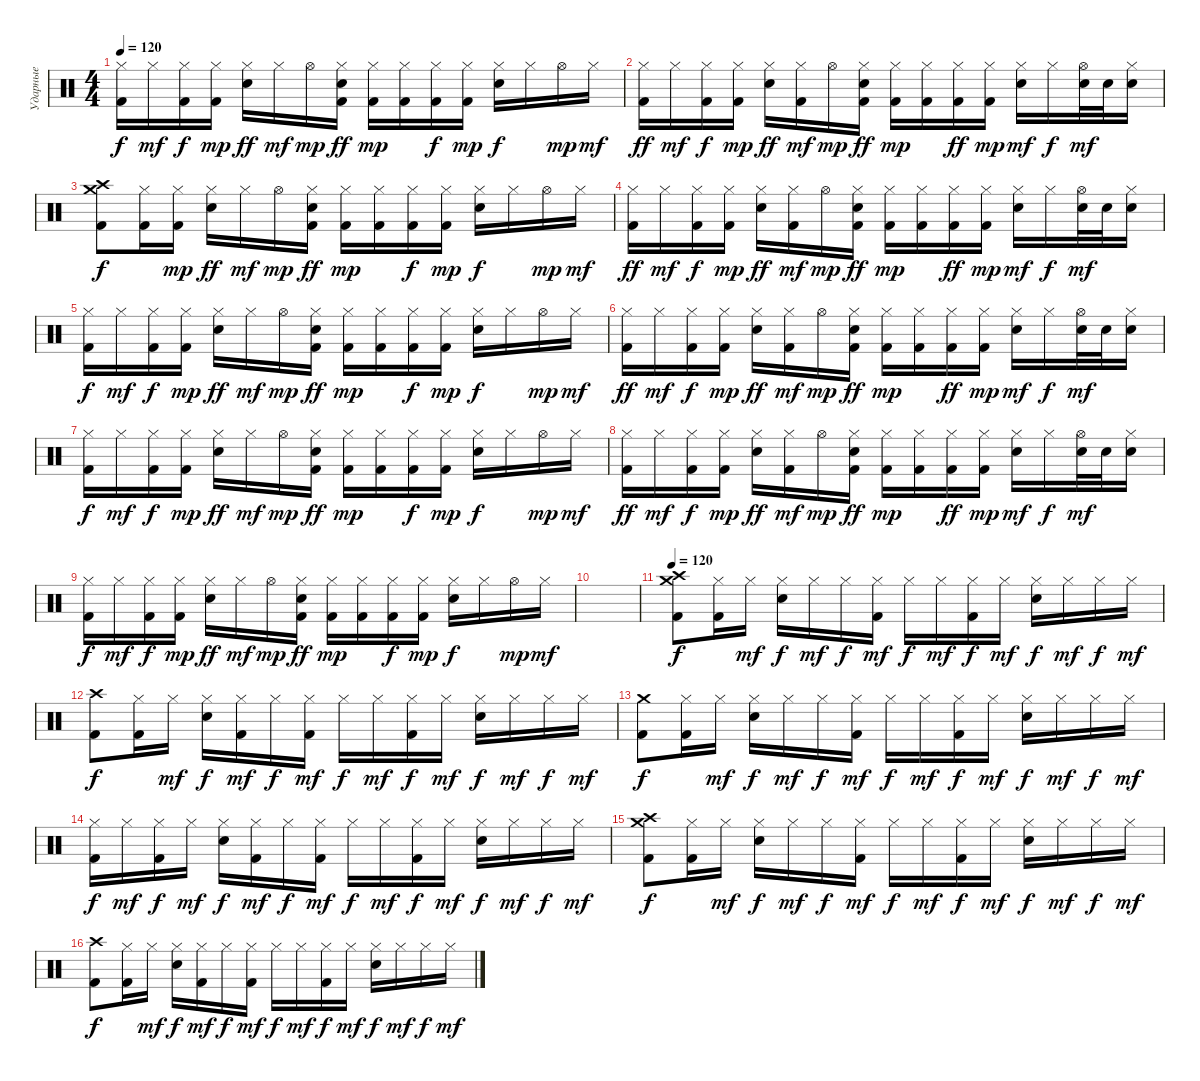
\track ("Ударные" "Ударные") {instrument percussion}
\staff {score}
\articulation defaults
\ts (4 4)
\tempo 120
\clef neutral
\ks c
("Hi-Hat (closed)" "Kick (hit) 2").16{dy f} "Hi-Hat (closed)".16{dy mf} ("Hi-Hat (closed)" "Kick (hit) 2").16{dy f} ("Hi-Hat (closed)" "Kick (hit) 2").16{dy mp} ("Hi-Hat (closed)" "Snare (hit) 2").16{dy ff} "Hi-Hat (closed)".16{dy mf} "Hi-Hat (open)".16{dy mp} ("Hi-Hat (closed)" "Snare (hit) 2" "Kick (hit) 2").16{dy ff} ("Hi-Hat (closed)" "Kick (hit) 2").16{dy mp} ("Hi-Hat (closed)" "Kick (hit) 2").16 ("Hi-Hat (closed)" "Kick (hit) 2").16{dy f} ("Hi-Hat (closed)" "Kick (hit) 2").16{dy mp} ("Hi-Hat (closed)" "Snare (hit) 2").16{dy f} "Hi-Hat (closed)".16 "Hi-Hat (open)".16{dy mp} "Hi-Hat (closed)".16{dy mf} |
("Hi-Hat (closed)" "Kick (hit) 2").16{dy ff} "Hi-Hat (closed)".16{dy mf} ("Hi-Hat (closed)" "Kick (hit) 2").16{dy f} ("Hi-Hat (closed)" "Kick (hit) 2").16{dy mp} ("Hi-Hat (closed)" "Snare (hit) 2").16{dy ff} ("Hi-Hat (closed)" "Kick (hit) 2").16{dy mf} "Hi-Hat (open)".16{dy mp} ("Hi-Hat (closed)" "Snare (hit) 2" "Kick (hit) 2").16{dy ff} ("Hi-Hat (closed)" "Kick (hit) 2").16{dy mp} ("Hi-Hat (closed)" "Kick (hit) 2").16 ("Hi-Hat (closed)" "Kick (hit) 2").16{dy ff} ("Hi-Hat (closed)" "Kick (hit) 2").16{dy mp} ("Hi-Hat (closed)" "Snare (hit) 2").16{dy mf} "Hi-Hat (closed)".16{dy f} ("Hi-Hat (open)" "Snare (hit) 2").32{dy mf} "Snare (hit) 2".32 ("Hi-Hat (closed)" "Snare (hit) 2").16 |
("Crash high (hit)" "Crash medium (hit)" "Kick (hit) 2").8{dy f} ("Hi-Hat (closed)" "Kick (hit) 2").16 ("Hi-Hat (closed)" "Kick (hit) 2").16{dy mp} ("Hi-Hat (closed)" "Snare (hit) 2").16{dy ff} "Hi-Hat (closed)".16{dy mf} "Hi-Hat (open)".16{dy mp} ("Hi-Hat (closed)" "Snare (hit) 2" "Kick (hit) 2").16{dy ff} ("Hi-Hat (closed)" "Kick (hit) 2").16{dy mp} ("Hi-Hat (closed)" "Kick (hit) 2").16 ("Hi-Hat (closed)" "Kick (hit) 2").16{dy f} ("Hi-Hat (closed)" "Kick (hit) 2").16{dy mp} ("Hi-Hat (closed)" "Snare (hit) 2").16{dy f} "Hi-Hat (closed)".16 "Hi-Hat (open)".16{dy mp} "Hi-Hat (closed)".16{dy mf} |
("Hi-Hat (closed)" "Kick (hit) 2").16{dy ff} "Hi-Hat (closed)".16{dy mf} ("Hi-Hat (closed)" "Kick (hit) 2").16{dy f} ("Hi-Hat (closed)" "Kick (hit) 2").16{dy mp} ("Hi-Hat (closed)" "Snare (hit) 2").16{dy ff} ("Hi-Hat (closed)" "Kick (hit) 2").16{dy mf} "Hi-Hat (open)".16{dy mp} ("Hi-Hat (closed)" "Snare (hit) 2" "Kick (hit) 2").16{dy ff} ("Hi-Hat (closed)" "Kick (hit) 2").16{dy mp} ("Hi-Hat (closed)" "Kick (hit) 2").16 ("Hi-Hat (closed)" "Kick (hit) 2").16{dy ff} ("Hi-Hat (closed)" "Kick (hit) 2").16{dy mp} ("Hi-Hat (closed)" "Snare (hit) 2").16{dy mf} "Hi-Hat (closed)".16{dy f} ("Hi-Hat (open)" "Snare (hit) 2").32{dy mf} "Snare (hit) 2".32 ("Hi-Hat (closed)" "Snare (hit) 2").16 |
("Hi-Hat (closed)" "Kick (hit) 2").16{dy f} "Hi-Hat (closed)".16{dy mf} ("Hi-Hat (closed)" "Kick (hit) 2").16{dy f} ("Hi-Hat (closed)" "Kick (hit) 2").16{dy mp} ("Hi-Hat (closed)" "Snare (hit) 2").16{dy ff} "Hi-Hat (closed)".16{dy mf} "Hi-Hat (open)".16{dy mp} ("Hi-Hat (closed)" "Snare (hit) 2" "Kick (hit) 2").16{dy ff} ("Hi-Hat (closed)" "Kick (hit) 2").16{dy mp} ("Hi-Hat (closed)" "Kick (hit) 2").16 ("Hi-Hat (closed)" "Kick (hit) 2").16{dy f} ("Hi-Hat (closed)" "Kick (hit) 2").16{dy mp} ("Hi-Hat (closed)" "Snare (hit) 2").16{dy f} "Hi-Hat (closed)".16 "Hi-Hat (open)".16{dy mp} "Hi-Hat (closed)".16{dy mf} |
("Hi-Hat (closed)" "Kick (hit) 2").16{dy ff} "Hi-Hat (closed)".16{dy mf} ("Hi-Hat (closed)" "Kick (hit) 2").16{dy f} ("Hi-Hat (closed)" "Kick (hit) 2").16{dy mp} ("Hi-Hat (closed)" "Snare (hit) 2").16{dy ff} ("Hi-Hat (closed)" "Kick (hit) 2").16{dy mf} "Hi-Hat (open)".16{dy mp} ("Hi-Hat (closed)" "Snare (hit) 2" "Kick (hit) 2").16{dy ff} ("Hi-Hat (closed)" "Kick (hit) 2").16{dy mp} ("Hi-Hat (closed)" "Kick (hit) 2").16 ("Hi-Hat (closed)" "Kick (hit) 2").16{dy ff} ("Hi-Hat (closed)" "Kick (hit) 2").16{dy mp} ("Hi-Hat (closed)" "Snare (hit) 2").16{dy mf} "Hi-Hat (closed)".16{dy f} ("Hi-Hat (open)" "Snare (hit) 2").32{dy mf} "Snare (hit) 2".32 ("Hi-Hat (closed)" "Snare (hit) 2").16 |
("Hi-Hat (closed)" "Kick (hit) 2").16{dy f} "Hi-Hat (closed)".16{dy mf} ("Hi-Hat (closed)" "Kick (hit) 2").16{dy f} ("Hi-Hat (closed)" "Kick (hit) 2").16{dy mp} ("Hi-Hat (closed)" "Snare (hit) 2").16{dy ff} "Hi-Hat (closed)".16{dy mf} "Hi-Hat (open)".16{dy mp} ("Hi-Hat (closed)" "Snare (hit) 2" "Kick (hit) 2").16{dy ff} ("Hi-Hat (closed)" "Kick (hit) 2").16{dy mp} ("Hi-Hat (closed)" "Kick (hit) 2").16 ("Hi-Hat (closed)" "Kick (hit) 2").16{dy f} ("Hi-Hat (closed)" "Kick (hit) 2").16{dy mp} ("Hi-Hat (closed)" "Snare (hit) 2").16{dy f} "Hi-Hat (closed)".16 "Hi-Hat (open)".16{dy mp} "Hi-Hat (closed)".16{dy mf} |
("Hi-Hat (closed)" "Kick (hit) 2").16{dy ff} "Hi-Hat (closed)".16{dy mf} ("Hi-Hat (closed)" "Kick (hit) 2").16{dy f} ("Hi-Hat (closed)" "Kick (hit) 2").16{dy mp} ("Hi-Hat (closed)" "Snare (hit) 2").16{dy ff} ("Hi-Hat (closed)" "Kick (hit) 2").16{dy mf} "Hi-Hat (open)".16{dy mp} ("Hi-Hat (closed)" "Snare (hit) 2" "Kick (hit) 2").16{dy ff} ("Hi-Hat (closed)" "Kick (hit) 2").16{dy mp} ("Hi-Hat (closed)" "Kick (hit) 2").16 ("Hi-Hat (closed)" "Kick (hit) 2").16{dy ff} ("Hi-Hat (closed)" "Kick (hit) 2").16{dy mp} ("Hi-Hat (closed)" "Snare (hit) 2").16{dy mf} "Hi-Hat (closed)".16{dy f} ("Hi-Hat (open)" "Snare (hit) 2").32{dy mf} "Snare (hit) 2".32 ("Hi-Hat (closed)" "Snare (hit) 2").16 |
("Hi-Hat (closed)" "Kick (hit) 2").16{dy f} "Hi-Hat (closed)".16{dy mf} ("Hi-Hat (closed)" "Kick (hit) 2").16{dy f} ("Hi-Hat (closed)" "Kick (hit) 2").16{dy mp} ("Hi-Hat (closed)" "Snare (hit) 2").16{dy ff} "Hi-Hat (closed)".16{dy mf} "Hi-Hat (open)".16{dy mp} ("Hi-Hat (closed)" "Snare (hit) 2" "Kick (hit) 2").16{dy ff} ("Hi-Hat (closed)" "Kick (hit) 2").16{dy mp} ("Hi-Hat (closed)" "Kick (hit) 2").16 ("Hi-Hat (closed)" "Kick (hit) 2").16{dy f} ("Hi-Hat (closed)" "Kick (hit) 2").16{dy mp} ("Hi-Hat (closed)" "Snare (hit) 2").16{dy f} "Hi-Hat (closed)".16 "Hi-Hat (open)".16{dy mp} "Hi-Hat (closed)".16{dy mf} |
|
\tempo 120
("Crash high (hit)" "Crash medium (hit)" "Kick (hit) 2").8{dy f} ("Hi-Hat (closed)" "Kick (hit) 2").16 "Hi-Hat (closed)".16{dy mf} ("Hi-Hat (closed)" "Snare (hit) 2").16{dy f} "Hi-Hat (closed)".16{dy mf} "Hi-Hat (closed)".16{dy f} ("Hi-Hat (closed)" "Kick (hit) 2").16{dy mf} "Hi-Hat (closed)".16{dy f} "Hi-Hat (closed)".16{dy mf} ("Hi-Hat (closed)" "Kick (hit) 2").16{dy f} "Hi-Hat (closed)".16{dy mf} ("Hi-Hat (closed)" "Snare (hit) 2").16{dy f} "Hi-Hat (closed)".16{dy mf} "Hi-Hat (closed)".16{dy f} "Hi-Hat (closed)".16{dy mf} |
("Crash high (hit)" "Kick (hit) 2").8{dy f} ("Hi-Hat (closed)" "Kick (hit) 2").16 "Hi-Hat (closed)".16{dy mf} ("Hi-Hat (closed)" "Snare (hit) 2").16{dy f} ("Hi-Hat (closed)" "Kick (hit) 2").16{dy mf} "Hi-Hat (closed)".16{dy f} ("Hi-Hat (closed)" "Kick (hit) 2").16{dy mf} "Hi-Hat (closed)".16{dy f} "Hi-Hat (closed)".16{dy mf} ("Hi-Hat (closed)" "Kick (hit) 2").16{dy f} "Hi-Hat (closed)".16{dy mf} ("Hi-Hat (closed)" "Snare (hit) 2").16{dy f} "Hi-Hat (closed)".16{dy mf} "Hi-Hat (closed)".16{dy f} "Hi-Hat (closed)".16{dy mf} |
("Crash medium (hit)" "Kick (hit) 2").8{dy f} ("Hi-Hat (closed)" "Kick (hit) 2").16 "Hi-Hat (closed)".16{dy mf} ("Hi-Hat (closed)" "Snare (hit) 2").16{dy f} "Hi-Hat (closed)".16{dy mf} "Hi-Hat (closed)".16{dy f} ("Hi-Hat (closed)" "Kick (hit) 2").16{dy mf} "Hi-Hat (closed)".16{dy f} "Hi-Hat (closed)".16{dy mf} ("Hi-Hat (closed)" "Kick (hit) 2").16{dy f} "Hi-Hat (closed)".16{dy mf} ("Hi-Hat (closed)" "Snare (hit) 2").16{dy f} "Hi-Hat (closed)".16{dy mf} "Hi-Hat (closed)".16{dy f} "Hi-Hat (closed)".16{dy mf} |
("Hi-Hat (closed)" "Kick (hit) 2").16{dy f} "Hi-Hat (closed)".16{dy mf} ("Hi-Hat (closed)" "Kick (hit) 2").16{dy f} "Hi-Hat (closed)".16{dy mf} ("Hi-Hat (closed)" "Snare (hit) 2").16{dy f} ("Hi-Hat (closed)" "Kick (hit) 2").16{dy mf} "Hi-Hat (closed)".16{dy f} ("Hi-Hat (closed)" "Kick (hit) 2").16{dy mf} "Hi-Hat (closed)".16{dy f} "Hi-Hat (closed)".16{dy mf} ("Hi-Hat (closed)" "Kick (hit) 2").16{dy f} "Hi-Hat (closed)".16{dy mf} ("Hi-Hat (closed)" "Snare (hit) 2").16{dy f} "Hi-Hat (closed)".16{dy mf} "Hi-Hat (closed)".16{dy f} "Hi-Hat (closed)".16{dy mf} |
("Crash high (hit)" "Crash medium (hit)" "Kick (hit) 2").8{dy f} ("Hi-Hat (closed)" "Kick (hit) 2").16 "Hi-Hat (closed)".16{dy mf} ("Hi-Hat (closed)" "Snare (hit) 2").16{dy f} "Hi-Hat (closed)".16{dy mf} "Hi-Hat (closed)".16{dy f} ("Hi-Hat (closed)" "Kick (hit) 2").16{dy mf} "Hi-Hat (closed)".16{dy f} "Hi-Hat (closed)".16{dy mf} ("Hi-Hat (closed)" "Kick (hit) 2").16{dy f} "Hi-Hat (closed)".16{dy mf} ("Hi-Hat (closed)" "Snare (hit) 2").16{dy f} "Hi-Hat (closed)".16{dy mf} "Hi-Hat (closed)".16{dy f} "Hi-Hat (closed)".16{dy mf} |
("Crash high (hit)" "Kick (hit) 2").8{dy f} ("Hi-Hat (closed)" "Kick (hit) 2").16 "Hi-Hat (closed)".16{dy mf} ("Hi-Hat (closed)" "Snare (hit) 2").16{dy f} ("Hi-Hat (closed)" "Kick (hit) 2").16{dy mf} "Hi-Hat (closed)".16{dy f} ("Hi-Hat (closed)" "Kick (hit) 2").16{dy mf} "Hi-Hat (closed)".16{dy f} "Hi-Hat (closed)".16{dy mf} ("Hi-Hat (closed)" "Kick (hit) 2").16{dy f} "Hi-Hat (closed)".16{dy mf} ("Hi-Hat (closed)" "Snare (hit) 2").16{dy f} "Hi-Hat (closed)".16{dy mf} "Hi-Hat (closed)".16{dy f} "Hi-Hat (closed)".16{dy mf}
